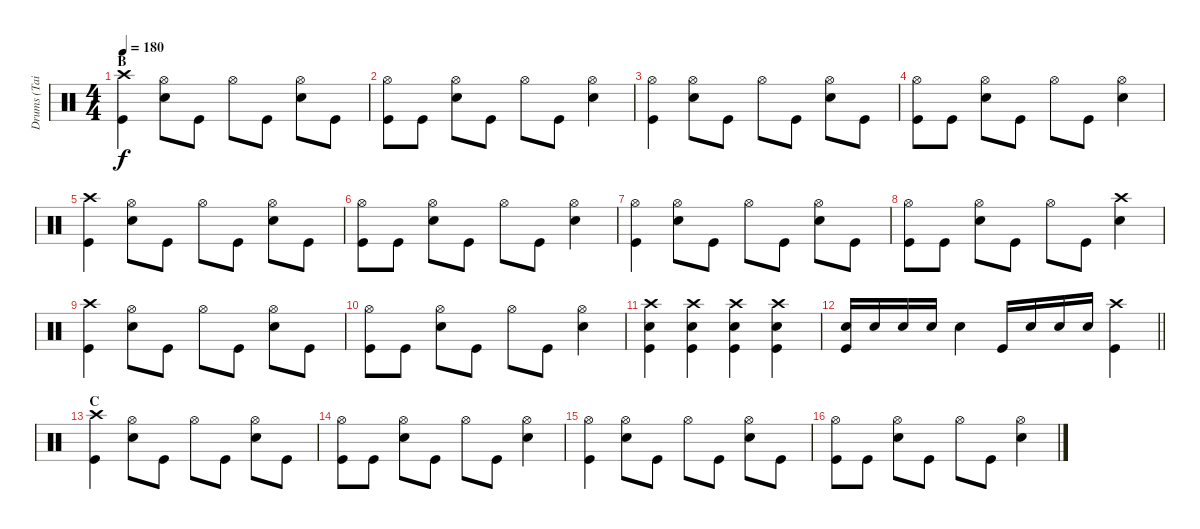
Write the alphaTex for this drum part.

\track ("Drums (Tainaka Ritsu)" "Drums (Tai") {instrument percussion}
\staff {score}
\articulation defaults
\ts (4 4)
\section ("" "B")
\tempo 180
\clef neutral
\ks c
("Crash high (hit)" "Kick (hit)").4{dy f} ("Hi-Hat (open)" "Snare (hit) 2").8 "Kick (hit)".8 "Hi-Hat (open)".8 "Kick (hit)".8 ("Hi-Hat (open)" "Snare (hit) 2").8 "Kick (hit)".8 |
("Hi-Hat (open)" "Kick (hit)").8 "Kick (hit)".8 ("Hi-Hat (open)" "Snare (hit) 2").8 "Kick (hit)".8 "Hi-Hat (open)".8 "Kick (hit)".8 ("Hi-Hat (open)" "Snare (hit) 2").4 |
("Hi-Hat (open)" "Kick (hit)").4 ("Hi-Hat (open)" "Snare (hit) 2").8 "Kick (hit)".8 "Hi-Hat (open)".8 "Kick (hit)".8 ("Hi-Hat (open)" "Snare (hit) 2").8 "Kick (hit)".8 |
("Hi-Hat (open)" "Kick (hit)").8 "Kick (hit)".8 ("Hi-Hat (open)" "Snare (hit) 2").8 "Kick (hit)".8 "Hi-Hat (open)".8 "Kick (hit)".8 ("Hi-Hat (open)" "Snare (hit) 2").4 |
("Crash high (hit)" "Kick (hit)").4 ("Hi-Hat (open)" "Snare (hit) 2").8 "Kick (hit)".8 "Hi-Hat (open)".8 "Kick (hit)".8 ("Hi-Hat (open)" "Snare (hit) 2").8 "Kick (hit)".8 |
("Hi-Hat (open)" "Kick (hit)").8 "Kick (hit)".8 ("Hi-Hat (open)" "Snare (hit) 2").8 "Kick (hit)".8 "Hi-Hat (open)".8 "Kick (hit)".8 ("Hi-Hat (open)" "Snare (hit) 2").4 |
("Hi-Hat (open)" "Kick (hit)").4 ("Hi-Hat (open)" "Snare (hit) 2").8 "Kick (hit)".8 "Hi-Hat (open)".8 "Kick (hit)".8 ("Hi-Hat (open)" "Snare (hit) 2").8 "Kick (hit)".8 |
("Hi-Hat (open)" "Kick (hit)").8 "Kick (hit)".8 ("Hi-Hat (open)" "Snare (hit) 2").8 "Kick (hit)".8 "Hi-Hat (open)".8 "Kick (hit)".8 ("Crash high (hit)" "Snare (hit) 2").4 |
("Crash high (hit)" "Kick (hit)").4 ("Hi-Hat (open)" "Snare (hit) 2").8 "Kick (hit)".8 "Hi-Hat (open)".8 "Kick (hit)".8 ("Hi-Hat (open)" "Snare (hit) 2").8 "Kick (hit)".8 |
("Hi-Hat (open)" "Kick (hit)").8 "Kick (hit)".8 ("Hi-Hat (open)" "Snare (hit) 2").8 "Kick (hit)".8 "Hi-Hat (open)".8 "Kick (hit)".8 ("Hi-Hat (open)" "Snare (hit) 2").4 |
("Crash high (hit)" "Snare (hit) 2" "Kick (hit)").4 ("Crash high (hit)" "Snare (hit) 2" "Kick (hit)").4 ("Crash high (hit)" "Snare (hit) 2" "Kick (hit)").4 ("Crash high (hit)" "Snare (hit) 2" "Kick (hit)").4 |
\barLineRight lightlight
("Snare (hit) 2" "Kick (hit)").16 "Snare (hit) 2".16 "Snare (hit) 2".16 "Snare (hit) 2".16 "Snare (hit) 2".4 "Kick (hit)".16 "Snare (hit) 2".16 "Snare (hit) 2".16 "Snare (hit) 2".16 ("Crash high (hit)" "Kick (hit)").4 |
\section ("" "C")
("Crash high (hit)" "Kick (hit)").4 ("Hi-Hat (open)" "Snare (hit) 2").8 "Kick (hit)".8 "Hi-Hat (open)".8 "Kick (hit)".8 ("Hi-Hat (open)" "Snare (hit) 2").8 "Kick (hit)".8 |
("Hi-Hat (open)" "Kick (hit)").8 "Kick (hit)".8 ("Hi-Hat (open)" "Snare (hit) 2").8 "Kick (hit)".8 "Hi-Hat (open)".8 "Kick (hit)".8 ("Hi-Hat (open)" "Snare (hit) 2").4 |
("Hi-Hat (open)" "Kick (hit)").4 ("Hi-Hat (open)" "Snare (hit) 2").8 "Kick (hit)".8 "Hi-Hat (open)".8 "Kick (hit)".8 ("Hi-Hat (open)" "Snare (hit) 2").8 "Kick (hit)".8 |
("Hi-Hat (open)" "Kick (hit)").8 "Kick (hit)".8 ("Hi-Hat (open)" "Snare (hit) 2").8 "Kick (hit)".8 "Hi-Hat (open)".8 "Kick (hit)".8 ("Hi-Hat (open)" "Snare (hit) 2").4
